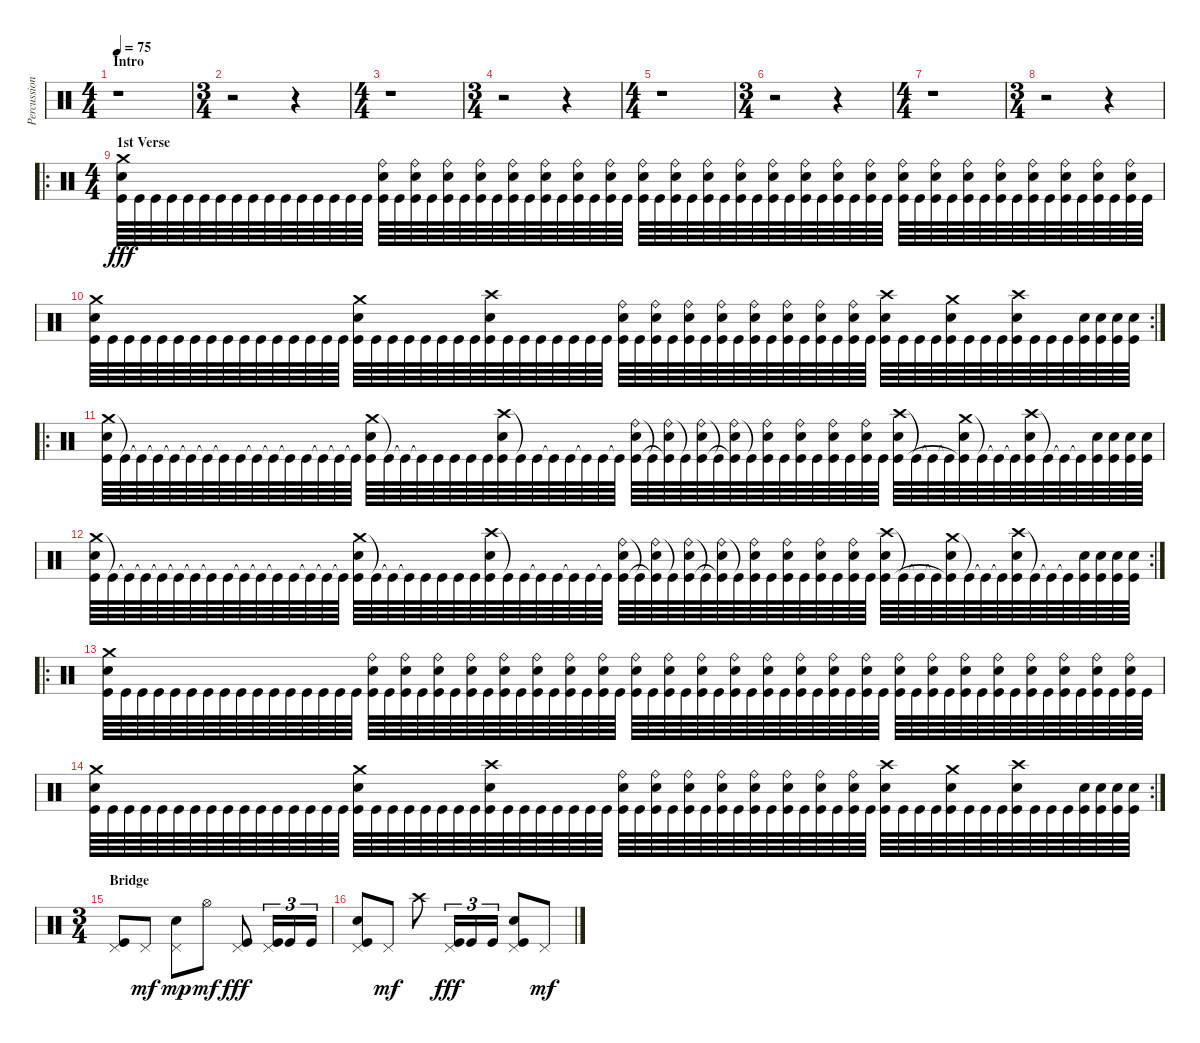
\track ("Percussion" "Percussion") {instrument percussion}
\staff {score}
\articulation defaults
\ts (4 4)
\section ("" "Intro")
\tempo 75
\clef neutral
\ks c
r.1{dy fff} |
\ts (3 4)
r.2 r.4 |
\ts (4 4)
r.1 |
\ts (3 4)
r.2 r.4 |
\ts (4 4)
r.1 |
\ts (3 4)
r.2 r.4 |
\ts (4 4)
r.1 |
\ts (3 4)
r.2 r.4 |
\ro
\ts (4 4)
\section ("" "1st Verse")
("Crash medium (hit)" "Snare (hit) 2" "Kick (hit)").64 "Kick (hit)".64 "Kick (hit)".64 "Kick (hit)".64 "Kick (hit)".64 "Kick (hit)".64 "Kick (hit)".64 "Kick (hit)".64 "Kick (hit)".64 "Kick (hit)".64 "Kick (hit)".64 "Kick (hit)".64 "Kick (hit)".64 "Kick (hit)".64 "Kick (hit)".64 "Kick (hit)".64 ("Ride (bell)" "Snare (hit) 2" "Kick (hit)").64 "Kick (hit)".64 ("Ride (bell)" "Snare (hit) 2" "Kick (hit)").64 "Kick (hit)".64 ("Ride (bell)" "Snare (hit) 2" "Kick (hit)").64 "Kick (hit)".64 ("Ride (bell)" "Snare (hit) 2" "Kick (hit)").64 "Kick (hit)".64 ("Ride (bell)" "Snare (hit) 2" "Kick (hit)").64 "Kick (hit)".64 ("Ride (bell)" "Snare (hit) 2" "Kick (hit)").64 "Kick (hit)".64 ("Ride (bell)" "Snare (hit) 2" "Kick (hit)").64 "Kick (hit)".64 ("Ride (bell)" "Snare (hit) 2" "Kick (hit)").64 "Kick (hit)".64 ("Ride (bell)" "Snare (hit) 2" "Kick (hit)").64 "Kick (hit)".64 ("Ride (bell)" "Snare (hit) 2" "Kick (hit)").64 "Kick (hit)".64 ("Ride (bell)" "Snare (hit) 2" "Kick (hit)").64 "Kick (hit)".64 ("Ride (bell)" "Snare (hit) 2" "Kick (hit)").64 "Kick (hit)".64 ("Ride (bell)" "Snare (hit) 2" "Kick (hit)").64 "Kick (hit)".64 ("Ride (bell)" "Snare (hit) 2" "Kick (hit)").64 "Kick (hit)".64 ("Ride (bell)" "Snare (hit) 2" "Kick (hit)").64 "Kick (hit)".64 ("Ride (bell)" "Snare (hit) 2" "Kick (hit)").64 "Kick (hit)".64 ("Ride (bell)" "Snare (hit) 2" "Kick (hit)").64 "Kick (hit)".64 ("Ride (bell)" "Snare (hit) 2" "Kick (hit)").64 "Kick (hit)".64 ("Ride (bell)" "Snare (hit) 2" "Kick (hit)").64 "Kick (hit)".64 ("Ride (bell)" "Snare (hit) 2" "Kick (hit)").64 "Kick (hit)".64 ("Ride (bell)" "Snare (hit) 2" "Kick (hit)").64 "Kick (hit)".64 ("Ride (bell)" "Snare (hit) 2" "Kick (hit)").64 "Kick (hit)".64 ("Ride (bell)" "Snare (hit) 2" "Kick (hit)").64 "Kick (hit)".64 ("Ride (bell)" "Snare (hit) 2" "Kick (hit)").64 "Kick (hit)".64 |
\rc 2
("Crash medium (hit)" "Snare (hit) 2" "Kick (hit)").64 "Kick (hit)".64 "Kick (hit)".64 "Kick (hit)".64 "Kick (hit)".64 "Kick (hit)".64 "Kick (hit)".64 "Kick (hit)".64 "Kick (hit)".64 "Kick (hit)".64 "Kick (hit)".64 "Kick (hit)".64 "Kick (hit)".64 "Kick (hit)".64 "Kick (hit)".64 "Kick (hit)".64 ("Crash medium (hit)" "Snare (hit) 2" "Kick (hit)").64 "Kick (hit)".64 "Kick (hit)".64 "Kick (hit)".64 "Kick (hit)".64 "Kick (hit)".64 "Kick (hit)".64 "Kick (hit)".64 ("Crash high (hit)" "Snare (hit) 2" "Kick (hit)").64 "Kick (hit)".64 "Kick (hit)".64 "Kick (hit)".64 "Kick (hit)".64 "Kick (hit)".64 "Kick (hit)".64 "Kick (hit)".64 ("Ride (bell)" "Snare (hit) 2" "Kick (hit)").64 "Kick (hit)".64 ("Ride (bell)" "Snare (hit) 2" "Kick (hit)").64 "Kick (hit)".64 ("Ride (bell)" "Snare (hit) 2" "Kick (hit)").64 "Kick (hit)".64 ("Ride (bell)" "Snare (hit) 2" "Kick (hit)").64 "Kick (hit)".64 ("Ride (bell)" "Snare (hit) 2" "Kick (hit)").64 "Kick (hit)".64 ("Ride (bell)" "Snare (hit) 2" "Kick (hit)").64 "Kick (hit)".64 ("Ride (bell)" "Snare (hit) 2" "Kick (hit)").64 "Kick (hit)".64 ("Ride (bell)" "Snare (hit) 2" "Kick (hit)").64 "Kick (hit)".64 ("Crash high (hit)" "Snare (hit) 2" "Kick (hit)").64 "Kick (hit)".64 "Kick (hit)".64 "Kick (hit)".64 ("Crash medium (hit)" "Snare (hit) 2" "Kick (hit)").64 "Kick (hit)".64 "Kick (hit)".64 "Kick (hit)".64 ("Crash high (hit)" "Snare (hit) 2" "Kick (hit)").64 "Kick (hit)".64 "Kick (hit)".64 "Kick (hit)".64 ("Snare (hit) 2" "Kick (hit)").64 ("Snare (hit) 2" "Kick (hit)").64 ("Snare (hit) 2" "Kick (hit)").64 ("Snare (hit) 2" "Kick (hit)").64 |
\ro
("Crash medium (hit)" "Snare (hit) 2" "Kick (hit)").64 "Kick (hit)"{t}.64 "Kick (hit)"{t}.64 "Kick (hit)"{t}.64 "Kick (hit)"{t}.64 "Kick (hit)"{t}.64 "Kick (hit)"{t}.64 "Kick (hit)"{t}.64 "Kick (hit)".64 "Kick (hit)"{t}.64 "Kick (hit)"{t}.64 "Kick (hit)"{t}.64 "Kick (hit)".64 "Kick (hit)"{t}.64 "Kick (hit)"{t}.64 "Kick (hit)"{t}.64 ("Crash medium (hit)" "Snare (hit) 2" "Kick (hit)").64 "Kick (hit)"{t}.64 "Kick (hit)"{t}.64 "Kick (hit)"{t}.64 "Kick (hit)".64 "Kick (hit)".64 "Kick (hit)".64 "Kick (hit)".64 ("Crash high (hit)" "Snare (hit) 2" "Kick (hit)").64 "Kick (hit)"{t}.64 "Kick (hit)".64 "Kick (hit)"{t}.64 "Kick (hit)".64 "Kick (hit)"{t}.64 "Kick (hit)".64 "Kick (hit)"{t}.64 ("Ride (bell)" "Snare (hit) 2" "Kick (hit)").64 "Kick (hit)"{t}.64 ("Ride (bell)" "Snare (hit) 2" "Kick (hit)"{t}).64 "Kick (hit)"{t}.64 ("Ride (bell)" "Snare (hit) 2" "Kick (hit)").64 "Kick (hit)"{t}.64 ("Ride (bell)" "Snare (hit) 2" "Kick (hit)"{t}).64 "Kick (hit)"{t}.64 ("Ride (bell)" "Snare (hit) 2" "Kick (hit)").64 "Kick (hit)".64 ("Ride (bell)" "Snare (hit) 2" "Kick (hit)").64 "Kick (hit)".64 ("Ride (bell)" "Snare (hit) 2" "Kick (hit)").64 "Kick (hit)".64 ("Ride (bell)" "Snare (hit) 2" "Kick (hit)").64 "Kick (hit)".64 ("Crash high (hit)" "Snare (hit) 2" "Kick (hit)").64 "Kick (hit)"{t}.64 "Kick (hit)"{t}.64 "Kick (hit)"{t}.64 ("Crash medium (hit)" "Snare (hit) 2" "Kick (hit)"{t}).64 "Kick (hit)"{t}.64 "Kick (hit)"{t}.64 "Kick (hit)"{t}.64 ("Crash high (hit)" "Snare (hit) 2" "Kick (hit)").64 "Kick (hit)"{t}.64 "Kick (hit)"{t}.64 "Kick (hit)"{t}.64 ("Snare (hit) 2" "Kick (hit)").64 ("Snare (hit) 2" "Kick (hit)").64 ("Snare (hit) 2" "Kick (hit)").64 ("Snare (hit) 2" "Kick (hit)").64 |
\rc 2
("Crash medium (hit)" "Snare (hit) 2" "Kick (hit)").64 "Kick (hit)"{t}.64 "Kick (hit)"{t}.64 "Kick (hit)"{t}.64 "Kick (hit)"{t}.64 "Kick (hit)"{t}.64 "Kick (hit)"{t}.64 "Kick (hit)"{t}.64 "Kick (hit)".64 "Kick (hit)"{t}.64 "Kick (hit)"{t}.64 "Kick (hit)"{t}.64 "Kick (hit)".64 "Kick (hit)"{t}.64 "Kick (hit)"{t}.64 "Kick (hit)"{t}.64 ("Crash medium (hit)" "Snare (hit) 2" "Kick (hit)").64 "Kick (hit)"{t}.64 "Kick (hit)"{t}.64 "Kick (hit)"{t}.64 "Kick (hit)".64 "Kick (hit)".64 "Kick (hit)".64 "Kick (hit)".64 ("Crash high (hit)" "Snare (hit) 2" "Kick (hit)").64 "Kick (hit)"{t}.64 "Kick (hit)".64 "Kick (hit)"{t}.64 "Kick (hit)".64 "Kick (hit)"{t}.64 "Kick (hit)".64 "Kick (hit)"{t}.64 ("Ride (bell)" "Snare (hit) 2" "Kick (hit)").64 "Kick (hit)"{t}.64 ("Ride (bell)" "Snare (hit) 2" "Kick (hit)"{t}).64 "Kick (hit)"{t}.64 ("Ride (bell)" "Snare (hit) 2" "Kick (hit)").64 "Kick (hit)"{t}.64 ("Ride (bell)" "Snare (hit) 2" "Kick (hit)"{t}).64 "Kick (hit)"{t}.64 ("Ride (bell)" "Snare (hit) 2" "Kick (hit)").64 "Kick (hit)".64 ("Ride (bell)" "Snare (hit) 2" "Kick (hit)").64 "Kick (hit)".64 ("Ride (bell)" "Snare (hit) 2" "Kick (hit)").64 "Kick (hit)".64 ("Ride (bell)" "Snare (hit) 2" "Kick (hit)").64 "Kick (hit)".64 ("Crash high (hit)" "Snare (hit) 2" "Kick (hit)").64 "Kick (hit)"{t}.64 "Kick (hit)"{t}.64 "Kick (hit)"{t}.64 ("Crash medium (hit)" "Snare (hit) 2" "Kick (hit)"{t}).64 "Kick (hit)"{t}.64 "Kick (hit)"{t}.64 "Kick (hit)"{t}.64 ("Crash high (hit)" "Snare (hit) 2" "Kick (hit)").64 "Kick (hit)"{t}.64 "Kick (hit)"{t}.64 "Kick (hit)"{t}.64 ("Snare (hit) 2" "Kick (hit)").64 ("Snare (hit) 2" "Kick (hit)").64 ("Snare (hit) 2" "Kick (hit)").64 ("Snare (hit) 2" "Kick (hit)").64 |
\ro
("Crash medium (hit)" "Snare (hit) 2" "Kick (hit)").64 "Kick (hit)".64 "Kick (hit)".64 "Kick (hit)".64 "Kick (hit)".64 "Kick (hit)".64 "Kick (hit)".64 "Kick (hit)".64 "Kick (hit)".64 "Kick (hit)".64 "Kick (hit)".64 "Kick (hit)".64 "Kick (hit)".64 "Kick (hit)".64 "Kick (hit)".64 "Kick (hit)".64 ("Ride (bell)" "Snare (hit) 2" "Kick (hit)").64 "Kick (hit)".64 ("Ride (bell)" "Snare (hit) 2" "Kick (hit)").64 "Kick (hit)".64 ("Ride (bell)" "Snare (hit) 2" "Kick (hit)").64 "Kick (hit)".64 ("Ride (bell)" "Snare (hit) 2" "Kick (hit)").64 "Kick (hit)".64 ("Ride (bell)" "Snare (hit) 2" "Kick (hit)").64 "Kick (hit)".64 ("Ride (bell)" "Snare (hit) 2" "Kick (hit)").64 "Kick (hit)".64 ("Ride (bell)" "Snare (hit) 2" "Kick (hit)").64 "Kick (hit)".64 ("Ride (bell)" "Snare (hit) 2" "Kick (hit)").64 "Kick (hit)".64 ("Ride (bell)" "Snare (hit) 2" "Kick (hit)").64 "Kick (hit)".64 ("Ride (bell)" "Snare (hit) 2" "Kick (hit)").64 "Kick (hit)".64 ("Ride (bell)" "Snare (hit) 2" "Kick (hit)").64 "Kick (hit)".64 ("Ride (bell)" "Snare (hit) 2" "Kick (hit)").64 "Kick (hit)".64 ("Ride (bell)" "Snare (hit) 2" "Kick (hit)").64 "Kick (hit)".64 ("Ride (bell)" "Snare (hit) 2" "Kick (hit)").64 "Kick (hit)".64 ("Ride (bell)" "Snare (hit) 2" "Kick (hit)").64 "Kick (hit)".64 ("Ride (bell)" "Snare (hit) 2" "Kick (hit)").64 "Kick (hit)".64 ("Ride (bell)" "Snare (hit) 2" "Kick (hit)").64 "Kick (hit)".64 ("Ride (bell)" "Snare (hit) 2" "Kick (hit)").64 "Kick (hit)".64 ("Ride (bell)" "Snare (hit) 2" "Kick (hit)").64 "Kick (hit)".64 ("Ride (bell)" "Snare (hit) 2" "Kick (hit)").64 "Kick (hit)".64 ("Ride (bell)" "Snare (hit) 2" "Kick (hit)").64 "Kick (hit)".64 ("Ride (bell)" "Snare (hit) 2" "Kick (hit)").64 "Kick (hit)".64 ("Ride (bell)" "Snare (hit) 2" "Kick (hit)").64 "Kick (hit)".64 ("Ride (bell)" "Snare (hit) 2" "Kick (hit)").64 "Kick (hit)".64 |
\rc 2
("Crash medium (hit)" "Snare (hit) 2" "Kick (hit)").64 "Kick (hit)".64 "Kick (hit)".64 "Kick (hit)".64 "Kick (hit)".64 "Kick (hit)".64 "Kick (hit)".64 "Kick (hit)".64 "Kick (hit)".64 "Kick (hit)".64 "Kick (hit)".64 "Kick (hit)".64 "Kick (hit)".64 "Kick (hit)".64 "Kick (hit)".64 "Kick (hit)".64 ("Crash medium (hit)" "Snare (hit) 2" "Kick (hit)").64 "Kick (hit)".64 "Kick (hit)".64 "Kick (hit)".64 "Kick (hit)".64 "Kick (hit)".64 "Kick (hit)".64 "Kick (hit)".64 ("Crash high (hit)" "Snare (hit) 2" "Kick (hit)").64 "Kick (hit)".64 "Kick (hit)".64 "Kick (hit)".64 "Kick (hit)".64 "Kick (hit)".64 "Kick (hit)".64 "Kick (hit)".64 ("Ride (bell)" "Snare (hit) 2" "Kick (hit)").64 "Kick (hit)".64 ("Ride (bell)" "Snare (hit) 2" "Kick (hit)").64 "Kick (hit)".64 ("Ride (bell)" "Snare (hit) 2" "Kick (hit)").64 "Kick (hit)".64 ("Ride (bell)" "Snare (hit) 2" "Kick (hit)").64 "Kick (hit)".64 ("Ride (bell)" "Snare (hit) 2" "Kick (hit)").64 "Kick (hit)".64 ("Ride (bell)" "Snare (hit) 2" "Kick (hit)").64 "Kick (hit)".64 ("Ride (bell)" "Snare (hit) 2" "Kick (hit)").64 "Kick (hit)".64 ("Ride (bell)" "Snare (hit) 2" "Kick (hit)").64 "Kick (hit)".64 ("Crash high (hit)" "Snare (hit) 2" "Kick (hit)").64 "Kick (hit)".64 "Kick (hit)".64 "Kick (hit)".64 ("Crash medium (hit)" "Snare (hit) 2" "Kick (hit)").64 "Kick (hit)".64 "Kick (hit)".64 "Kick (hit)".64 ("Crash high (hit)" "Snare (hit) 2" "Kick (hit)").64 "Kick (hit)".64 "Kick (hit)".64 "Kick (hit)".64 ("Snare (hit) 2" "Kick (hit)").64 ("Snare (hit) 2" "Kick (hit)").64 ("Snare (hit) 2" "Kick (hit)").64 ("Snare (hit) 2" "Kick (hit)").64 |
\ts (3 4)
\section ("" "Bridge")
("Pedal Hi-Hat (hit)" "Kick (hit)").8 "Pedal Hi-Hat (hit)".8{dy mf} ("Pedal Hi-Hat (hit)" "Snare (hit) 2").8{dy mp} "Hi-Hat (open)".8{dy mf} ("Pedal Hi-Hat (hit)" "Kick (hit)").8{dy fff} ("Pedal Hi-Hat (hit)" "Kick (hit)").16{tu (3 2)} "Kick (hit)".16{tu (3 2)} "Kick (hit)".16{tu (3 2)} |
("Pedal Hi-Hat (hit)" "Snare (hit) 2" "Kick (hit)").8 "Pedal Hi-Hat (hit)".8{dy mf} "Crash high (hit)".8 ("Pedal Hi-Hat (hit)" "Kick (hit)").16{tu (3 2) dy fff} "Kick (hit)".16{tu (3 2)} "Kick (hit)".16{tu (3 2)} ("Pedal Hi-Hat (hit)" "Snare (hit) 2" "Kick (hit)").8 "Pedal Hi-Hat (hit)".8{dy mf}
